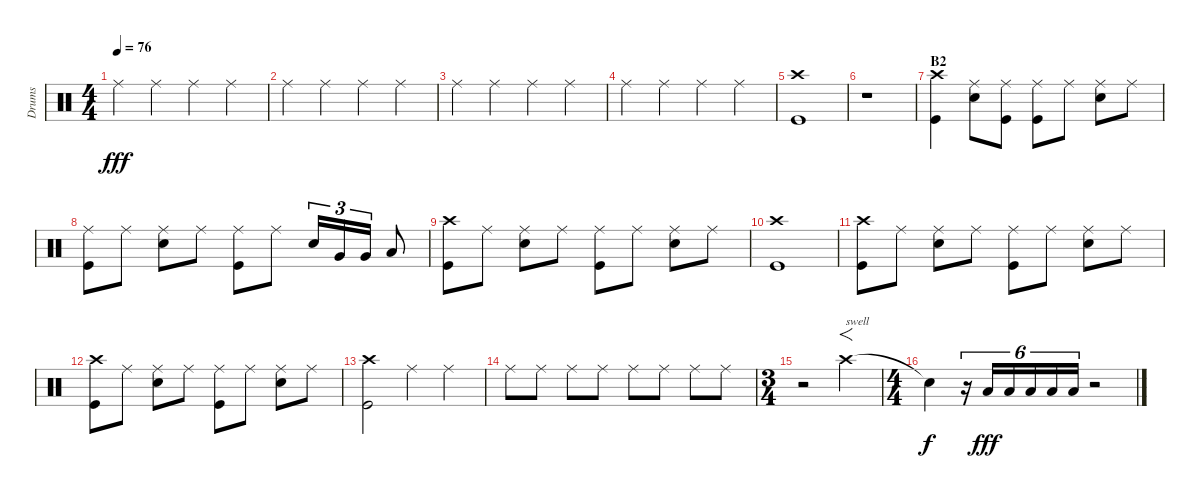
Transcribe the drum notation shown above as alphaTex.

\track ("Drums" "Drums") {instrument percussion}
\staff {score}
\articulation defaults
\ts (4 4)
\tempo 76
\clef neutral
\ks c "Ride (middle)".4{dy fff} "Ride (middle)".4 "Ride (middle)".4 "Ride (middle)".4
|
"Ride (middle)".4 "Ride (middle)".4 "Ride (middle)".4 "Ride (middle)".4 |
"Ride (middle)".4 "Ride (middle)".4 "Ride (middle)".4 "Ride (middle)".4 |
"Ride (middle)".4 "Ride (middle)".4 "Ride (middle)".4 "Ride (middle)".4 |
("Crash high (hit)" "Kick (hit)").1 |
r.1 |
\section ("" "B2")
("Crash high (hit)" "Kick (hit)").4 ("Ride (middle)" "Snare (hit) 2").8 ("Ride (middle)" "Kick (hit)").8 ("Ride (middle)" "Kick (hit)").8 "Ride (middle)".8 ("Ride (middle)" "Snare (hit) 2").8 "Ride (middle)".8 |
("Ride (middle)" "Kick (hit)").8 "Ride (middle)".8 ("Ride (middle)" "Snare (hit) 2").8 "Ride (middle)".8 ("Ride (middle)" "Kick (hit)").8 "Ride (middle)".8 "Snare (hit) 2".16{tu (3 2)} "Very Low Tom (hit)".16{tu (3 2)} "Very Low Tom (hit)".16{tu (3 2)} "Low Floor Tom (hit)".8 |
("Crash high (hit)" "Kick (hit)").8 "Ride (middle)".8 ("Ride (middle)" "Snare (hit) 2").8 "Ride (middle)".8 ("Ride (middle)" "Kick (hit)").8 "Ride (middle)".8 ("Ride (middle)" "Snare (hit) 2").8 "Ride (middle)".8 |
("Crash high (hit)" "Kick (hit)").1 |
("Crash high (hit)" "Kick (hit)").8 "Ride (middle)".8 ("Ride (middle)" "Snare (hit) 2").8 "Ride (middle)".8 ("Ride (middle)" "Kick (hit)").8 "Ride (middle)".8 ("Ride (middle)" "Snare (hit) 2").8 "Ride (middle)".8 |
("Crash high (hit)" "Kick (hit)").8 "Ride (middle)".8 ("Ride (middle)" "Snare (hit) 2").8 "Ride (middle)".8 ("Ride (middle)" "Kick (hit)").8 "Ride (middle)".8 ("Ride (middle)" "Snare (hit) 2").8 "Ride (middle)".8 |
("Crash high (hit)" "Kick (hit)").2 "Ride (middle)".4 "Ride (middle)".4 |
"Ride (middle)".8 "Ride (middle)".8 "Ride (middle)".8 "Ride (middle)".8 "Ride (middle)".8 "Ride (middle)".8 "Ride (middle)".8 "Ride (middle)".8 |
\ts (3 4)
r.2 "Crash high (hit)".4{f txt "swell"} |
\ts (4 4)
"Snare (hit)"{t}.4{dy f} r.16{tu (6 4)} "Low Floor Tom (hit)".16{tu (6 4) dy fff} "Low Floor Tom (hit)".16{tu (6 4)} "Low Floor Tom (hit)".16{tu (6 4)} "Low Floor Tom (hit)".16{tu (6 4)} "Low Floor Tom (hit)".16{tu (6 4)} r.2
